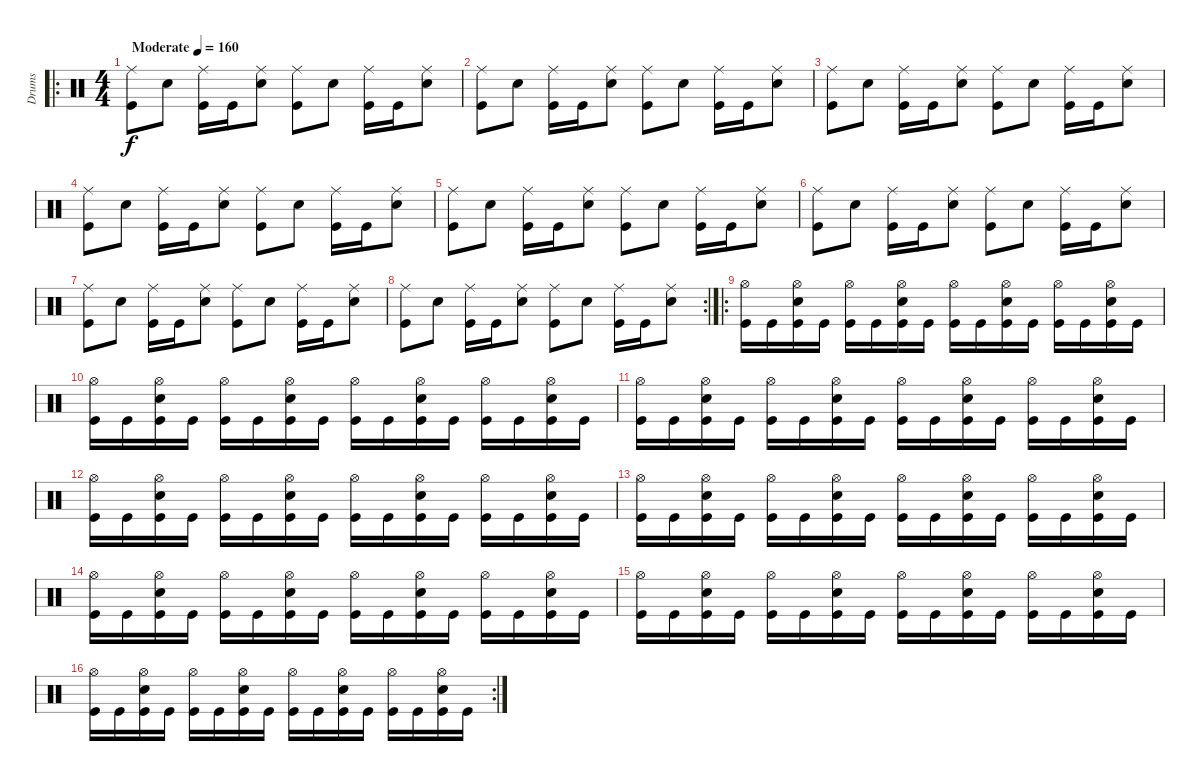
\track ("Drums" "Drums") {instrument percussion}
\staff {score}
\articulation defaults
\ro
\ts (4 4)
\tempo (160 "Moderate")
\clef neutral
\ks c
("Ride (middle)" "Kick (hit)").8{dy f} "Snare (hit) 2".8 ("Ride (middle)" "Kick (hit)").16 "Kick (hit)".16 ("Ride (middle)" "Snare (hit) 2").8 ("Ride (middle)" "Kick (hit)").8 "Snare (hit) 2".8 ("Ride (middle)" "Kick (hit)").16 "Kick (hit)".16 ("Ride (middle)" "Snare (hit) 2").8 |
("Ride (middle)" "Kick (hit)").8 "Snare (hit) 2".8 ("Ride (middle)" "Kick (hit)").16 "Kick (hit)".16 ("Ride (middle)" "Snare (hit) 2").8 ("Ride (middle)" "Kick (hit)").8 "Snare (hit) 2".8 ("Ride (middle)" "Kick (hit)").16 "Kick (hit)".16 ("Ride (middle)" "Snare (hit) 2").8 |
("Ride (middle)" "Kick (hit)").8 "Snare (hit) 2".8 ("Ride (middle)" "Kick (hit)").16 "Kick (hit)".16 ("Ride (middle)" "Snare (hit) 2").8 ("Ride (middle)" "Kick (hit)").8 "Snare (hit) 2".8 ("Ride (middle)" "Kick (hit)").16 "Kick (hit)".16 ("Ride (middle)" "Snare (hit) 2").8 |
("Ride (middle)" "Kick (hit)").8 "Snare (hit) 2".8 ("Ride (middle)" "Kick (hit)").16 "Kick (hit)".16 ("Ride (middle)" "Snare (hit) 2").8 ("Ride (middle)" "Kick (hit)").8 "Snare (hit) 2".8 ("Ride (middle)" "Kick (hit)").16 "Kick (hit)".16 ("Ride (middle)" "Snare (hit) 2").8 |
("Ride (middle)" "Kick (hit)").8 "Snare (hit) 2".8 ("Ride (middle)" "Kick (hit)").16 "Kick (hit)".16 ("Ride (middle)" "Snare (hit) 2").8 ("Ride (middle)" "Kick (hit)").8 "Snare (hit) 2".8 ("Ride (middle)" "Kick (hit)").16 "Kick (hit)".16 ("Ride (middle)" "Snare (hit) 2").8 |
("Ride (middle)" "Kick (hit)").8 "Snare (hit) 2".8 ("Ride (middle)" "Kick (hit)").16 "Kick (hit)".16 ("Ride (middle)" "Snare (hit) 2").8 ("Ride (middle)" "Kick (hit)").8 "Snare (hit) 2".8 ("Ride (middle)" "Kick (hit)").16 "Kick (hit)".16 ("Ride (middle)" "Snare (hit) 2").8 |
("Ride (middle)" "Kick (hit)").8 "Snare (hit) 2".8 ("Ride (middle)" "Kick (hit)").16 "Kick (hit)".16 ("Ride (middle)" "Snare (hit) 2").8 ("Ride (middle)" "Kick (hit)").8 "Snare (hit) 2".8 ("Ride (middle)" "Kick (hit)").16 "Kick (hit)".16 ("Ride (middle)" "Snare (hit) 2").8 |
\rc 2
("Ride (middle)" "Kick (hit)").8 "Snare (hit) 2".8 ("Ride (middle)" "Kick (hit)").16 "Kick (hit)".16 ("Ride (middle)" "Snare (hit) 2").8 ("Ride (middle)" "Kick (hit)").8 "Snare (hit) 2".8 ("Ride (middle)" "Kick (hit)").16 "Kick (hit)".16 ("Ride (middle)" "Snare (hit) 2").8 |
\ro
("Hi-Hat (open)" "Kick (hit)").16 "Kick (hit)".16 ("Hi-Hat (open)" "Snare (hit) 2" "Kick (hit)").16 "Kick (hit)".16 ("Hi-Hat (open)" "Kick (hit)").16 "Kick (hit)".16 ("Hi-Hat (open)" "Snare (hit) 2" "Kick (hit)").16 "Kick (hit)".16 ("Hi-Hat (open)" "Kick (hit)").16 "Kick (hit)".16 ("Hi-Hat (open)" "Snare (hit) 2" "Kick (hit)").16 "Kick (hit)".16 ("Hi-Hat (open)" "Kick (hit)").16 "Kick (hit)".16 ("Hi-Hat (open)" "Snare (hit) 2" "Kick (hit)").16 "Kick (hit)".16 |
("Hi-Hat (open)" "Kick (hit)").16 "Kick (hit)".16 ("Hi-Hat (open)" "Snare (hit) 2" "Kick (hit)").16 "Kick (hit)".16 ("Hi-Hat (open)" "Kick (hit)").16 "Kick (hit)".16 ("Hi-Hat (open)" "Snare (hit) 2" "Kick (hit)").16 "Kick (hit)".16 ("Hi-Hat (open)" "Kick (hit)").16 "Kick (hit)".16 ("Hi-Hat (open)" "Snare (hit) 2" "Kick (hit)").16 "Kick (hit)".16 ("Hi-Hat (open)" "Kick (hit)").16 "Kick (hit)".16 ("Hi-Hat (open)" "Snare (hit) 2" "Kick (hit)").16 "Kick (hit)".16 |
("Hi-Hat (open)" "Kick (hit)").16 "Kick (hit)".16 ("Hi-Hat (open)" "Snare (hit) 2" "Kick (hit)").16 "Kick (hit)".16 ("Hi-Hat (open)" "Kick (hit)").16 "Kick (hit)".16 ("Hi-Hat (open)" "Snare (hit) 2" "Kick (hit)").16 "Kick (hit)".16 ("Hi-Hat (open)" "Kick (hit)").16 "Kick (hit)".16 ("Hi-Hat (open)" "Snare (hit) 2" "Kick (hit)").16 "Kick (hit)".16 ("Hi-Hat (open)" "Kick (hit)").16 "Kick (hit)".16 ("Hi-Hat (open)" "Snare (hit) 2" "Kick (hit)").16 "Kick (hit)".16 |
("Hi-Hat (open)" "Kick (hit)").16 "Kick (hit)".16 ("Hi-Hat (open)" "Snare (hit) 2" "Kick (hit)").16 "Kick (hit)".16 ("Hi-Hat (open)" "Kick (hit)").16 "Kick (hit)".16 ("Hi-Hat (open)" "Snare (hit) 2" "Kick (hit)").16 "Kick (hit)".16 ("Hi-Hat (open)" "Kick (hit)").16 "Kick (hit)".16 ("Hi-Hat (open)" "Snare (hit) 2" "Kick (hit)").16 "Kick (hit)".16 ("Hi-Hat (open)" "Kick (hit)").16 "Kick (hit)".16 ("Hi-Hat (open)" "Snare (hit) 2" "Kick (hit)").16 "Kick (hit)".16 |
("Hi-Hat (open)" "Kick (hit)").16 "Kick (hit)".16 ("Hi-Hat (open)" "Snare (hit) 2" "Kick (hit)").16 "Kick (hit)".16 ("Hi-Hat (open)" "Kick (hit)").16 "Kick (hit)".16 ("Hi-Hat (open)" "Snare (hit) 2" "Kick (hit)").16 "Kick (hit)".16 ("Hi-Hat (open)" "Kick (hit)").16 "Kick (hit)".16 ("Hi-Hat (open)" "Snare (hit) 2" "Kick (hit)").16 "Kick (hit)".16 ("Hi-Hat (open)" "Kick (hit)").16 "Kick (hit)".16 ("Hi-Hat (open)" "Snare (hit) 2" "Kick (hit)").16 "Kick (hit)".16 |
("Hi-Hat (open)" "Kick (hit)").16 "Kick (hit)".16 ("Hi-Hat (open)" "Snare (hit) 2" "Kick (hit)").16 "Kick (hit)".16 ("Hi-Hat (open)" "Kick (hit)").16 "Kick (hit)".16 ("Hi-Hat (open)" "Snare (hit) 2" "Kick (hit)").16 "Kick (hit)".16 ("Hi-Hat (open)" "Kick (hit)").16 "Kick (hit)".16 ("Hi-Hat (open)" "Snare (hit) 2" "Kick (hit)").16 "Kick (hit)".16 ("Hi-Hat (open)" "Kick (hit)").16 "Kick (hit)".16 ("Hi-Hat (open)" "Snare (hit) 2" "Kick (hit)").16 "Kick (hit)".16 |
("Hi-Hat (open)" "Kick (hit)").16 "Kick (hit)".16 ("Hi-Hat (open)" "Snare (hit) 2" "Kick (hit)").16 "Kick (hit)".16 ("Hi-Hat (open)" "Kick (hit)").16 "Kick (hit)".16 ("Hi-Hat (open)" "Snare (hit) 2" "Kick (hit)").16 "Kick (hit)".16 ("Hi-Hat (open)" "Kick (hit)").16 "Kick (hit)".16 ("Hi-Hat (open)" "Snare (hit) 2" "Kick (hit)").16 "Kick (hit)".16 ("Hi-Hat (open)" "Kick (hit)").16 "Kick (hit)".16 ("Hi-Hat (open)" "Snare (hit) 2" "Kick (hit)").16 "Kick (hit)".16 |
\rc 2
("Hi-Hat (open)" "Kick (hit)").16 "Kick (hit)".16 ("Hi-Hat (open)" "Snare (hit) 2" "Kick (hit)").16 "Kick (hit)".16 ("Hi-Hat (open)" "Kick (hit)").16 "Kick (hit)".16 ("Hi-Hat (open)" "Snare (hit) 2" "Kick (hit)").16 "Kick (hit)".16 ("Hi-Hat (open)" "Kick (hit)").16 "Kick (hit)".16 ("Hi-Hat (open)" "Snare (hit) 2" "Kick (hit)").16 "Kick (hit)".16 ("Hi-Hat (open)" "Kick (hit)").16 "Kick (hit)".16 ("Hi-Hat (open)" "Snare (hit) 2" "Kick (hit)").16 "Kick (hit)".16
